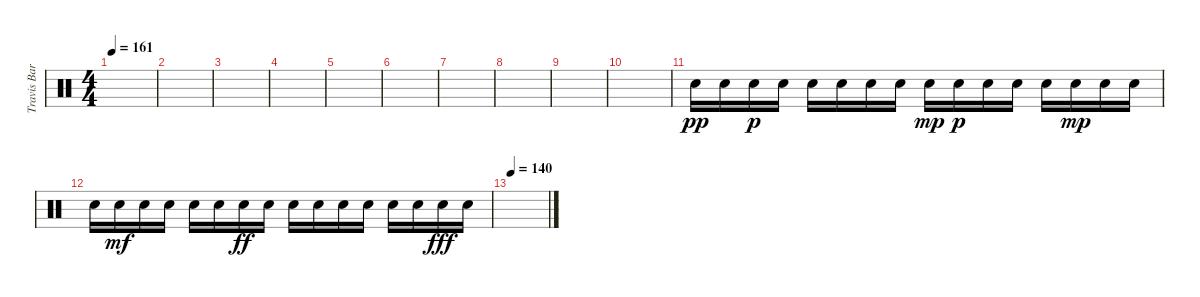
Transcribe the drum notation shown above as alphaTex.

\track ("Travis Barker - Overdubbed Drums" "Travis Bar") {instrument percussion}
\staff {score}
\articulation defaults
\ts (4 4)
\tempo 161
\clef neutral
\ks c
|
|
|
|
|
|
|
|
|
|
"Electric Snare (hit)".16{dy pp} "Electric Snare (hit)".16 "Electric Snare (hit)".16{dy p} "Electric Snare (hit)".16 "Electric Snare (hit)".16 "Electric Snare (hit)".16 "Electric Snare (hit)".16 "Electric Snare (hit)".16 "Electric Snare (hit)".16{dy mp} "Electric Snare (hit)".16{dy p} "Electric Snare (hit)".16 "Electric Snare (hit)".16 "Electric Snare (hit)".16 "Electric Snare (hit)".16{dy mp} "Electric Snare (hit)".16 "Electric Snare (hit)".16 |
"Electric Snare (hit)".16 "Electric Snare (hit)".16{dy mf} "Electric Snare (hit)".16 "Electric Snare (hit)".16 "Electric Snare (hit)".16 "Electric Snare (hit)".16 "Electric Snare (hit)".16{dy ff} "Electric Snare (hit)".16 "Electric Snare (hit)".16 "Electric Snare (hit)".16 "Electric Snare (hit)".16 "Electric Snare (hit)".16 "Electric Snare (hit)".16 "Electric Snare (hit)".16 "Electric Snare (hit)".16{dy fff} "Electric Snare (hit)".16 |
\tempo 140
